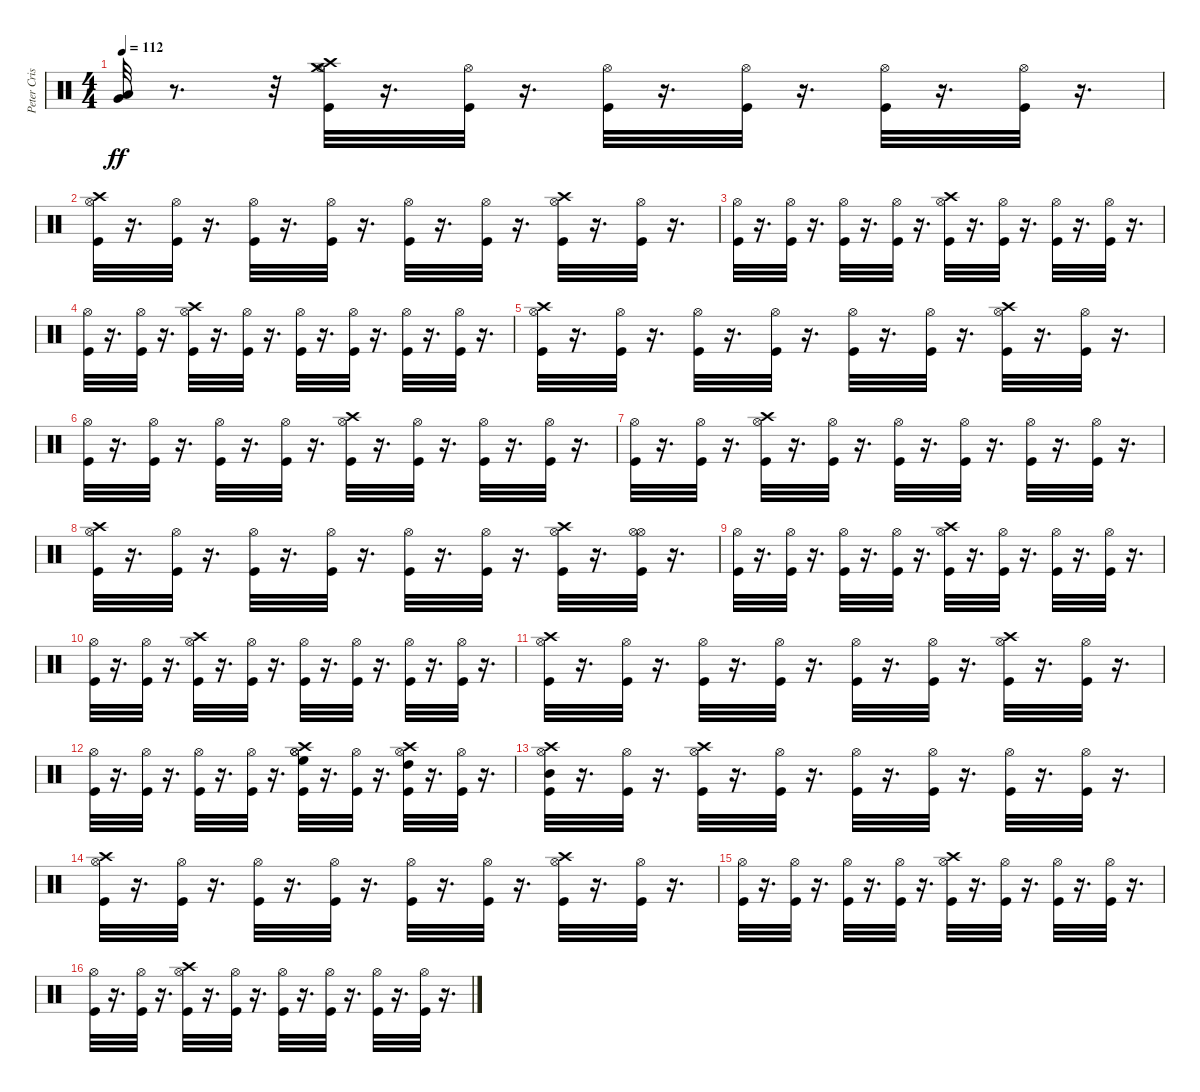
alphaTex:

\track ("Peter Criss" "Peter Cris") {instrument percussion}
\staff {score}
\articulation defaults
\ts (4 4)
\tempo 112
\clef neutral
\ks c
("Low Floor Tom (hit)" "Very Low Tom (hit)").32{dy ff} r.8{d} r.32 ("Hi-Hat (open)" "Kick (hit)" "Crash high (hit)" "Crash medium (hit)").32 r.16{d} ("Hi-Hat (open)" "Kick (hit)").32 r.16{d} ("Kick (hit)" "Hi-Hat (open)").32 r.16{d} ("Kick (hit)" "Hi-Hat (open)").32 r.16{d} ("Hi-Hat (open)" "Kick (hit)").32 r.16{d} ("Kick (hit)" "Hi-Hat (open)").32 r.16{d} |
("Hi-Hat (open)" "Kick (hit)" "Crash high (hit)").32 r.16{d} ("Kick (hit)" "Hi-Hat (open)").32 r.16{d} ("Kick (hit)" "Hi-Hat (open)").32 r.16{d} ("Hi-Hat (open)" "Kick (hit)").32 r.16{d} ("Kick (hit)" "Hi-Hat (open)").32 r.16{d} ("Kick (hit)" "Hi-Hat (open)").32 r.16{d} ("Hi-Hat (open)" "Crash high (hit)" "Kick (hit)").32 r.16{d} ("Hi-Hat (open)" "Kick (hit)").32 r.16{d} |
("Hi-Hat (open)" "Kick (hit)").32 r.16{d} ("Hi-Hat (open)" "Kick (hit)").32 r.16{d} ("Hi-Hat (open)" "Kick (hit)").32 r.16{d} ("Kick (hit)" "Hi-Hat (open)").32 r.16{d} ("Hi-Hat (open)" "Crash high (hit)" "Kick (hit)").32 r.16{d} ("Hi-Hat (open)" "Kick (hit)").32 r.16{d} ("Kick (hit)" "Hi-Hat (open)").32 r.16{d} ("Kick (hit)" "Hi-Hat (open)").32 r.16{d} |
("Kick (hit)" "Hi-Hat (open)").32 r.16{d} ("Hi-Hat (open)" "Kick (hit)").32 r.16{d} ("Crash high (hit)" "Hi-Hat (open)" "Kick (hit)").32 r.16{d} ("Kick (hit)" "Hi-Hat (open)").32 r.16{d} ("Kick (hit)" "Hi-Hat (open)").32 r.16{d} ("Kick (hit)" "Hi-Hat (open)").32 r.16{d} ("Hi-Hat (open)" "Kick (hit)").32 r.16{d} ("Kick (hit)" "Hi-Hat (open)").32 r.16{d} |
("Kick (hit)" "Hi-Hat (open)" "Crash high (hit)").32 r.16{d} ("Hi-Hat (open)" "Kick (hit)").32 r.16{d} ("Kick (hit)" "Hi-Hat (open)").32 r.16{d} ("Kick (hit)" "Hi-Hat (open)").32 r.16{d} ("Hi-Hat (open)" "Kick (hit)").32 r.16{d} ("Hi-Hat (open)" "Kick (hit)").32 r.16{d} ("Kick (hit)" "Hi-Hat (open)" "Crash high (hit)").32 r.16{d} ("Hi-Hat (open)" "Kick (hit)").32 r.16{d} |
("Hi-Hat (open)" "Kick (hit)").32 r.16{d} ("Hi-Hat (open)" "Kick (hit)").32 r.16{d} ("Hi-Hat (open)" "Kick (hit)").32 r.16{d} ("Kick (hit)" "Hi-Hat (open)").32 r.16{d} ("Crash high (hit)" "Kick (hit)" "Hi-Hat (open)").32 r.16{d} ("Hi-Hat (open)" "Kick (hit)").32 r.16{d} ("Kick (hit)" "Hi-Hat (open)").32 r.16{d} ("Kick (hit)" "Hi-Hat (open)").32 r.16{d} |
("Kick (hit)" "Hi-Hat (open)").32 r.16{d} ("Hi-Hat (open)" "Kick (hit)").32 r.16{d} ("Hi-Hat (open)" "Kick (hit)" "Crash high (hit)").32 r.16{d} ("Hi-Hat (open)" "Kick (hit)").32 r.16{d} ("Kick (hit)" "Hi-Hat (open)").32 r.16{d} ("Kick (hit)" "Hi-Hat (open)").32 r.16{d} ("Kick (hit)" "Hi-Hat (open)").32 r.16{d} ("Kick (hit)" "Hi-Hat (open)").32 r.16{d} |
("Hi-Hat (open)" "Crash high (hit)" "Kick (hit)").32 r.16{d} ("Hi-Hat (open)" "Kick (hit)").32 r.16{d} ("Kick (hit)" "Hi-Hat (open)").32 r.16{d} ("Hi-Hat (open)" "Kick (hit)").32 r.16{d} ("Kick (hit)" "Hi-Hat (open)").32 r.16{d} ("Kick (hit)" "Hi-Hat (open)").32 r.16{d} ("Hi-Hat (open)" "Crash high (hit)" "Kick (hit)").32 r.16{d} ("Hi-Hat (open)" "Kick (hit)" "Hi-Hat (open)").32 r.16{d} |
("Kick (hit)" "Hi-Hat (open)").32 r.16{d} ("Hi-Hat (open)" "Kick (hit)").32 r.16{d} ("Hi-Hat (open)" "Kick (hit)").32 r.16{d} ("Kick (hit)" "Hi-Hat (open)").32 r.16{d} ("Kick (hit)" "Hi-Hat (open)" "Crash high (hit)").32 r.16{d} ("Kick (hit)" "Hi-Hat (open)").32 r.16{d} ("Kick (hit)" "Hi-Hat (open)").32 r.16{d} ("Kick (hit)" "Hi-Hat (open)").32 r.16{d} |
("Kick (hit)" "Hi-Hat (open)").32 r.16{d} ("Kick (hit)" "Hi-Hat (open)").32 r.16{d} ("Kick (hit)" "Hi-Hat (open)" "Crash high (hit)").32 r.16{d} ("Hi-Hat (open)" "Kick (hit)").32 r.16{d} ("Kick (hit)" "Hi-Hat (open)").32 r.16{d} ("Hi-Hat (open)" "Kick (hit)").32 r.16{d} ("Kick (hit)" "Hi-Hat (open)").32 r.16{d} ("Hi-Hat (open)" "Kick (hit)").32 r.16{d} |
("Crash high (hit)" "Hi-Hat (open)" "Kick (hit)").32 r.16{d} ("Hi-Hat (open)" "Kick (hit)").32 r.16{d} ("Hi-Hat (open)" "Kick (hit)").32 r.16{d} ("Kick (hit)" "Hi-Hat (open)").32 r.16{d} ("Kick (hit)" "Hi-Hat (open)").32 r.16{d} ("Kick (hit)" "Hi-Hat (open)").32 r.16{d} ("Kick (hit)" "Crash high (hit)" "Hi-Hat (open)").32 r.16{d} ("Kick (hit)" "Hi-Hat (open)").32 r.16{d} |
("Kick (hit)" "Hi-Hat (open)").32 r.16{d} ("Kick (hit)" "Hi-Hat (open)").32 r.16{d} ("Hi-Hat (open)" "Kick (hit)").32 r.16{d} ("Hi-Hat (open)" "Kick (hit)").32 r.16{d} ("Kick (hit)" "Crash high (hit)" "High Floor Tom (hit)" "Hi-Hat (open)" "Hi-Hat (open)").32 r.16{d} ("Hi-Hat (open)" "Kick (hit)").32 r.16{d} ("Crash high (hit)" "Hi-Hat (open)" "High Tom (hit)" "Kick (hit)").32 r.16{d} ("Kick (hit)" "Hi-Hat (open)").32 r.16{d} |
("Kick (hit)" "Hi-Hat (open)" "Crash high (hit)" "Mid Tom (hit)").32 r.16{d} ("Hi-Hat (open)" "Kick (hit)").32 r.16{d} ("Kick (hit)" "Hi-Hat (open)" "Crash high (hit)").32 r.16{d} ("Hi-Hat (open)" "Kick (hit)").32 r.16{d} ("Kick (hit)" "Hi-Hat (open)").32 r.16{d} ("Hi-Hat (open)" "Kick (hit)").32 r.16{d} ("Hi-Hat (open)" "Kick (hit)").32 r.16{d} ("Kick (hit)" "Hi-Hat (open)").32 r.16{d} |
("Crash high (hit)" "Kick (hit)" "Hi-Hat (open)").32 r.16{d} ("Hi-Hat (open)" "Kick (hit)").32 r.16{d} ("Kick (hit)" "Hi-Hat (open)").32 r.16{d} ("Kick (hit)" "Hi-Hat (open)").32 r.16{d} ("Kick (hit)" "Hi-Hat (open)").32 r.16{d} ("Hi-Hat (open)" "Kick (hit)").32 r.16{d} ("Kick (hit)" "Hi-Hat (open)" "Crash high (hit)").32 r.16{d} ("Hi-Hat (open)" "Kick (hit)").32 r.16{d} |
("Kick (hit)" "Hi-Hat (open)").32 r.16{d} ("Kick (hit)" "Hi-Hat (open)").32 r.16{d} ("Hi-Hat (open)" "Kick (hit)").32 r.16{d} ("Kick (hit)" "Hi-Hat (open)").32 r.16{d} ("Crash high (hit)" "Kick (hit)" "Hi-Hat (open)").32 r.16{d} ("Hi-Hat (open)" "Kick (hit)").32 r.16{d} ("Kick (hit)" "Hi-Hat (open)").32 r.16{d} ("Kick (hit)" "Hi-Hat (open)").32 r.16{d} |
("Kick (hit)" "Hi-Hat (open)").32 r.16{d} ("Kick (hit)" "Hi-Hat (open)").32 r.16{d} ("Kick (hit)" "Hi-Hat (open)" "Crash high (hit)").32 r.16{d} ("Hi-Hat (open)" "Kick (hit)").32 r.16{d} ("Kick (hit)" "Hi-Hat (open)").32 r.16{d} ("Kick (hit)" "Hi-Hat (open)").32 r.16{d} ("Kick (hit)" "Hi-Hat (open)").32 r.16{d} ("Kick (hit)" "Hi-Hat (open)").32 r.16{d}
